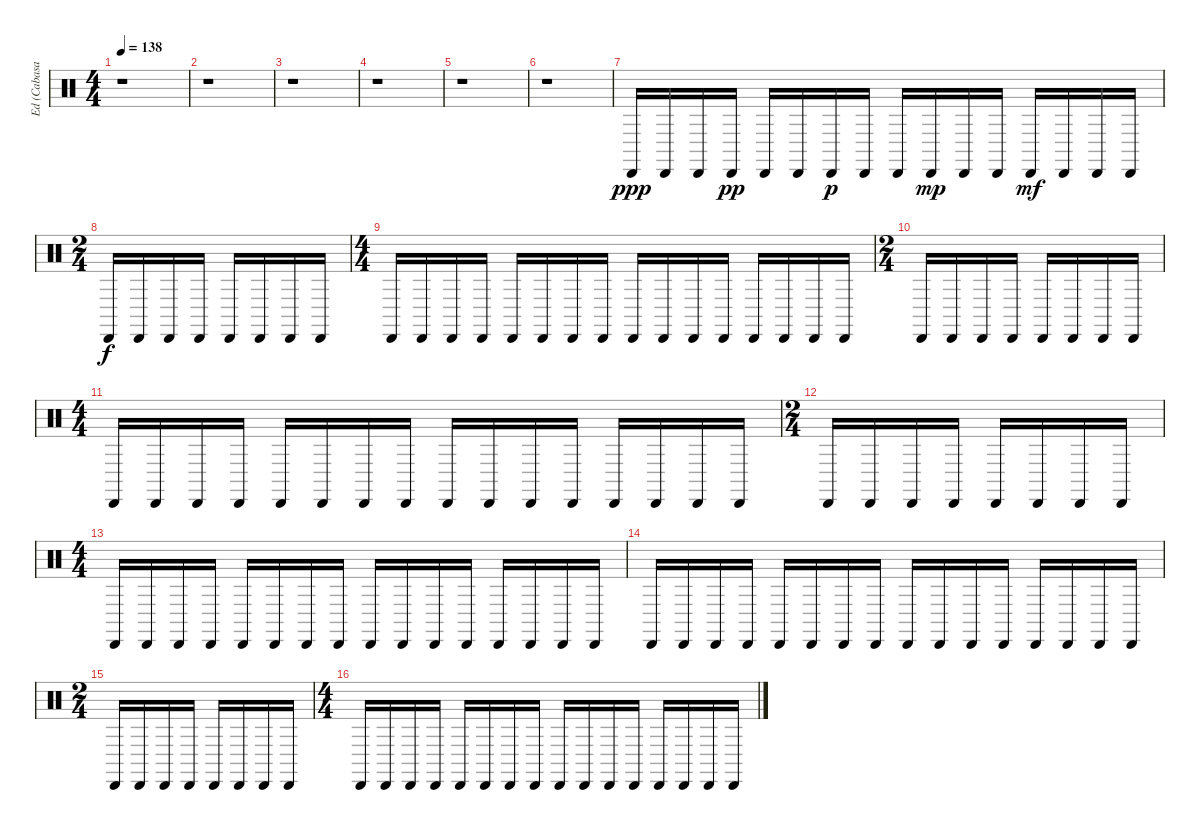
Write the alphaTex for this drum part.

\track ("Ed (Cabasa)" "Ed (Cabasa") {instrument percussion}
\staff {score}
\articulation defaults
\ts (4 4)
\tempo 138
\clef neutral
\ks c
r.1{dy mf} |
r.1 |
r.1 |
r.1 |
r.1 |
r.1 |
"Cabasa (hit)".16{dy ppp} "Cabasa (hit)".16 "Cabasa (hit)".16 "Cabasa (hit)".16{dy pp} "Cabasa (hit)".16 "Cabasa (hit)".16 "Cabasa (hit)".16{dy p} "Cabasa (hit)".16 "Cabasa (hit)".16 "Cabasa (hit)".16{dy mp} "Cabasa (hit)".16 "Cabasa (hit)".16 "Cabasa (hit)".16{dy mf} "Cabasa (hit)".16 "Cabasa (hit)".16 "Cabasa (hit)".16 |
\ts (2 4)
"Cabasa (hit)".16{dy f} "Cabasa (hit)".16 "Cabasa (hit)".16 "Cabasa (hit)".16 "Cabasa (hit)".16 "Cabasa (hit)".16 "Cabasa (hit)".16 "Cabasa (hit)".16 |
\ts (4 4)
"Cabasa (hit)".16 "Cabasa (hit)".16 "Cabasa (hit)".16 "Cabasa (hit)".16 "Cabasa (hit)".16 "Cabasa (hit)".16 "Cabasa (hit)".16 "Cabasa (hit)".16 "Cabasa (hit)".16 "Cabasa (hit)".16 "Cabasa (hit)".16 "Cabasa (hit)".16 "Cabasa (hit)".16 "Cabasa (hit)".16 "Cabasa (hit)".16 "Cabasa (hit)".16 |
\ts (2 4)
"Cabasa (hit)".16 "Cabasa (hit)".16 "Cabasa (hit)".16 "Cabasa (hit)".16 "Cabasa (hit)".16 "Cabasa (hit)".16 "Cabasa (hit)".16 "Cabasa (hit)".16 |
\ts (4 4)
"Cabasa (hit)".16 "Cabasa (hit)".16 "Cabasa (hit)".16 "Cabasa (hit)".16 "Cabasa (hit)".16 "Cabasa (hit)".16 "Cabasa (hit)".16 "Cabasa (hit)".16 "Cabasa (hit)".16 "Cabasa (hit)".16 "Cabasa (hit)".16 "Cabasa (hit)".16 "Cabasa (hit)".16 "Cabasa (hit)".16 "Cabasa (hit)".16 "Cabasa (hit)".16 |
\ts (2 4)
"Cabasa (hit)".16 "Cabasa (hit)".16 "Cabasa (hit)".16 "Cabasa (hit)".16 "Cabasa (hit)".16 "Cabasa (hit)".16 "Cabasa (hit)".16 "Cabasa (hit)".16 |
\ts (4 4)
"Cabasa (hit)".16 "Cabasa (hit)".16 "Cabasa (hit)".16 "Cabasa (hit)".16 "Cabasa (hit)".16 "Cabasa (hit)".16 "Cabasa (hit)".16 "Cabasa (hit)".16 "Cabasa (hit)".16 "Cabasa (hit)".16 "Cabasa (hit)".16 "Cabasa (hit)".16 "Cabasa (hit)".16 "Cabasa (hit)".16 "Cabasa (hit)".16 "Cabasa (hit)".16 |
"Cabasa (hit)".16 "Cabasa (hit)".16 "Cabasa (hit)".16 "Cabasa (hit)".16 "Cabasa (hit)".16 "Cabasa (hit)".16 "Cabasa (hit)".16 "Cabasa (hit)".16 "Cabasa (hit)".16 "Cabasa (hit)".16 "Cabasa (hit)".16 "Cabasa (hit)".16 "Cabasa (hit)".16 "Cabasa (hit)".16 "Cabasa (hit)".16 "Cabasa (hit)".16 |
\ts (2 4)
"Cabasa (hit)".16 "Cabasa (hit)".16 "Cabasa (hit)".16 "Cabasa (hit)".16 "Cabasa (hit)".16 "Cabasa (hit)".16 "Cabasa (hit)".16 "Cabasa (hit)".16 |
\ts (4 4)
"Cabasa (hit)".16 "Cabasa (hit)".16 "Cabasa (hit)".16 "Cabasa (hit)".16 "Cabasa (hit)".16 "Cabasa (hit)".16 "Cabasa (hit)".16 "Cabasa (hit)".16 "Cabasa (hit)".16 "Cabasa (hit)".16 "Cabasa (hit)".16 "Cabasa (hit)".16 "Cabasa (hit)".16 "Cabasa (hit)".16 "Cabasa (hit)".16 "Cabasa (hit)".16
